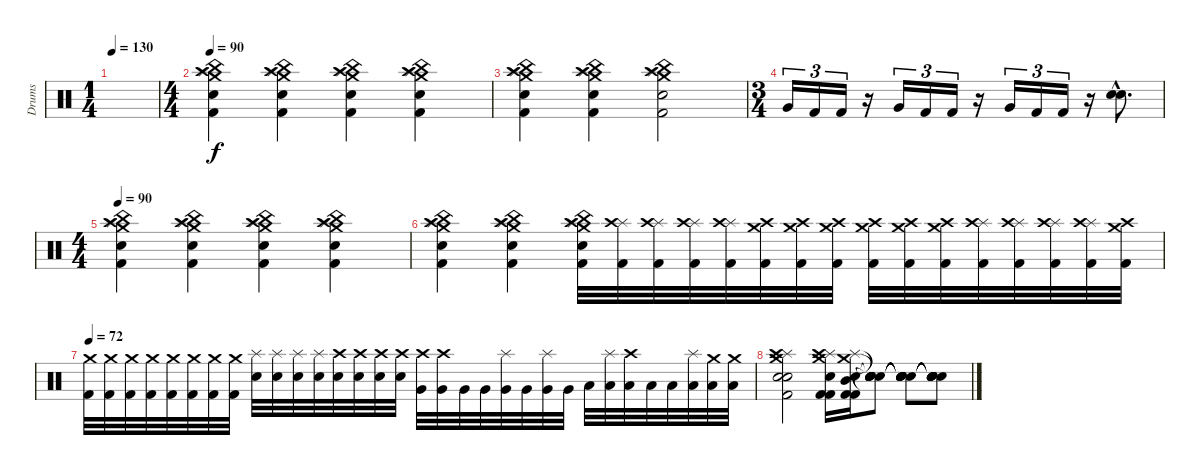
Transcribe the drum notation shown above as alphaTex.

\track ("Drums" "Drums") {instrument percussion}
\staff {score}
\articulation defaults
\ts (1 4)
\tempo 130
\clef neutral
\ks c
|
\ts (4 4)
\tempo 90
("China (hit)" "Crash medium (hit)" "Splash (hit)" "Crash high (hit)" "Snare (hit) 2" "Kick (hit) 2").4 ("China (hit)" "Crash medium (hit)" "Splash (hit)" "Crash high (hit)" "Snare (hit) 2" "Kick (hit) 2").4 ("China (hit)" "Crash medium (hit)" "Splash (hit)" "Crash high (hit)" "Snare (hit) 2" "Kick (hit) 2").4 ("China (hit)" "Crash medium (hit)" "Splash (hit)" "Crash high (hit)" "Snare (hit) 2" "Kick (hit) 2").4 |
("Crash medium (hit)" "Splash (hit)" "Snare (hit) 2" "Crash high (hit)" "China (hit)" "Kick (hit) 2").4 ("Crash medium (hit)" "Splash (hit)" "Snare (hit) 2" "Crash high (hit)" "China (hit)" "Kick (hit) 2").4 ("Crash medium (hit)" "Splash (hit)" "Snare (hit) 2" "Crash high (hit)" "China (hit)" "Kick (hit) 2").2 |
\ts (3 4)
"Very Low Tom (hit)".16{tu (3 2)} "Kick (hit) 2".16{tu (3 2)} "Kick (hit) 2".16{tu (3 2)} r.16 "Very Low Tom (hit)".16{tu (3 2)} "Kick (hit) 2".16{tu (3 2)} "Kick (hit) 2".16{tu (3 2)} r.16 "Very Low Tom (hit)".16{tu (3 2)} "Kick (hit) 2".16{tu (3 2)} "Kick (hit) 2".16{tu (3 2)} r.16 ("Electric Snare (hit)"{hac} "Snare (hit) 2"{hac}).8{d} |
\ts (4 4)
\tempo 90
("China (hit)" "Crash medium (hit)" "Splash (hit)" "Crash high (hit)" "Snare (hit) 2" "Kick (hit) 2").4 ("China (hit)" "Crash medium (hit)" "Splash (hit)" "Crash high (hit)" "Snare (hit) 2" "Kick (hit) 2").4 ("China (hit)" "Crash medium (hit)" "Splash (hit)" "Crash high (hit)" "Snare (hit) 2" "Kick (hit) 2").4 ("China (hit)" "Crash medium (hit)" "Splash (hit)" "Crash high (hit)" "Snare (hit) 2" "Kick (hit) 2").4 |
("Crash medium (hit)" "Splash (hit)" "Snare (hit) 2" "Crash high (hit)" "China (hit)" "Kick (hit) 2").4 ("Crash medium (hit)" "Splash (hit)" "Snare (hit) 2" "Crash high (hit)" "China (hit)" "Kick (hit) 2").4 ("Crash medium (hit)" "Splash (hit)" "Snare (hit) 2" "Crash high (hit)" "China (hit)" "Kick (hit) 2").32 ("Splash (hit)" "Crash high (hit)" "Kick (hit) 2").32 ("Splash (hit)" "Crash high (hit)" "Kick (hit) 2").32 ("Splash (hit)" "Crash high (hit)" "Kick (hit) 2").32 ("Splash (hit)" "Crash high (hit)" "Kick (hit) 2").32 ("Crash medium (hit)" "Crash high (hit)" "Kick (hit) 2").32 ("Crash medium (hit)" "Crash high (hit)" "Kick (hit) 2").32 ("Crash medium (hit)" "Crash high (hit)" "Kick (hit) 2").32 ("Crash medium (hit)" "Crash high (hit)" "Kick (hit) 2").32 ("Crash medium (hit)" "Crash high (hit)" "Kick (hit) 2").32 ("Crash medium (hit)" "Crash high (hit)" "Kick (hit) 2").32 ("Splash (hit)" "Crash high (hit)" "Kick (hit) 2").32 ("Splash (hit)" "Crash high (hit)" "Kick (hit) 2").32 ("Splash (hit)" "Crash high (hit)" "Kick (hit) 2").32 ("Splash (hit)" "Crash high (hit)" "Kick (hit) 2").32 ("Crash medium (hit)" "Crash high (hit)" "Kick (hit) 2").32 |
\tempo 72
("Crash medium (hit)" "Kick (hit) 2").32 ("Crash medium (hit)" "Kick (hit) 2").32 ("Crash medium (hit)" "Kick (hit) 2").32 ("Crash medium (hit)" "Kick (hit) 2").32 ("Crash medium (hit)" "Kick (hit) 2").32 ("Crash medium (hit)" "Kick (hit) 2").32 ("Crash medium (hit)" "Kick (hit) 2").32 ("Crash medium (hit)" "Kick (hit) 2").32 ("Splash (hit)" "Snare (hit) 2").32 ("Splash (hit)" "Snare (hit) 2").32 ("Splash (hit)" "Snare (hit) 2").32 ("Splash (hit)" "Snare (hit) 2").32 ("Crash high (hit)" "Snare (hit) 2").32 ("Crash high (hit)" "Snare (hit) 2").32 ("Crash high (hit)" "Snare (hit) 2").32 ("Crash high (hit)" "Snare (hit) 2").32 ("Crash high (hit)" "Very Low Tom (hit)").32 ("Crash high (hit)" "Very Low Tom (hit)").32 "Very Low Tom (hit)".32 "Very Low Tom (hit)".32 ("Splash (hit)" "Very Low Tom (hit)").32 "Very Low Tom (hit)".32 ("Splash (hit)" "Very Low Tom (hit)").32 "Very Low Tom (hit)".32 "Low Floor Tom (hit)".32 ("Splash (hit)" "Low Floor Tom (hit)").32 ("Crash high (hit)" "Low Floor Tom (hit)").32 "Low Floor Tom (hit)".32 "Low Floor Tom (hit)".32 ("Splash (hit)" "Low Floor Tom (hit)").32 ("Crash medium (hit)" "Low Floor Tom (hit)").32 ("Crash medium (hit)" "Low Floor Tom (hit)").32 |
("Snare (hit)" "Crash medium (hit)" "Splash (hit)" "Crash high (hit)" "Snare (hit) 2" "Kick (hit) 2").2 ("Crash medium (hit)" "Splash (hit)" "Crash high (hit)" "Snare (hit) 2" "Kick (hit) 2" "Kick (hit) 2").16 ("Crash medium (hit)" "Splash (hit)" "Mid Tom (hit)" "Snare (hit) 2" "Kick (hit) 2" "Kick (hit) 2").16 ("Snare (hit)"{t} "Snare (hit)"{t} "Snare (hit)"{t} "Snare (hit)"{t} "Snare (hit)"{t} "Snare (hit)"{t}).8{dy f} ("Snare (hit)"{t} "Snare (hit)"{t} "Snare (hit)"{t} "Snare (hit)"{t} "Snare (hit)"{t} "Snare (hit)"{t}).8 ("Snare (hit)"{t} "Snare (hit)"{t} "Snare (hit)"{t} "Snare (hit)"{t} "Snare (hit)"{t} "Snare (hit)"{t}).8
